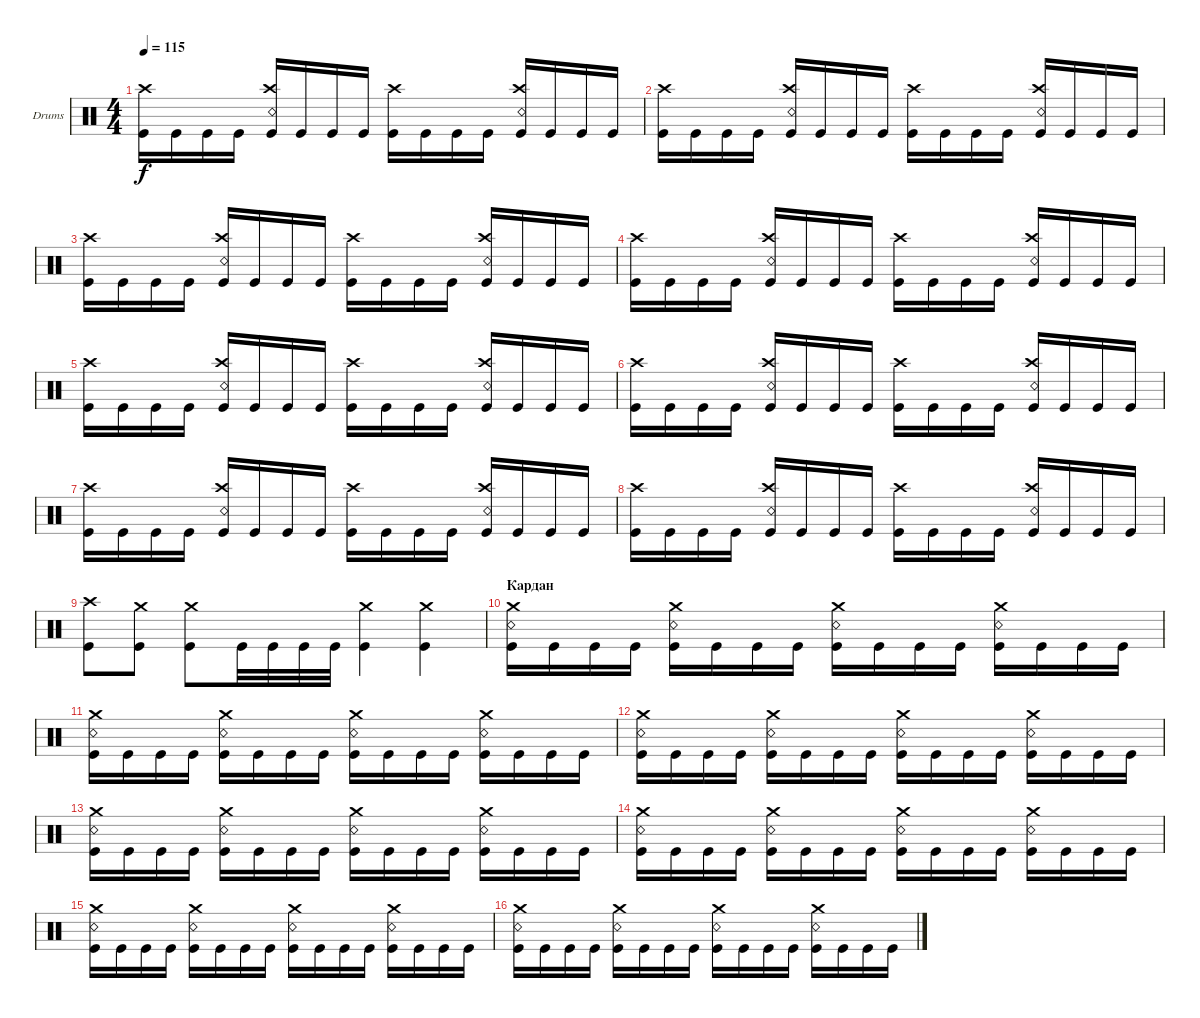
\bracketExtendMode groupsimilarinstruments
\firstSystemTrackNameOrientation horizontal
\otherSystemsTrackNameOrientation horizontal
\track ("Drumkit" "Drums") {instrument percussion}
\staff {score}
\articulation defaults
\ts (4 4)
\tempo 115
\clef neutral
\scale
0.333333
\ks c
("Kick (hit)" "Crash high (hit)").16{dy f} "Kick (hit)".16 "Kick (hit)".16 "Kick (hit)".16 ("Kick (hit)" "Snare (rim shot)" "Crash high (hit)").16 "Kick (hit)".16 "Kick (hit)".16 "Kick (hit)".16 ("Kick (hit)" "Crash high (hit)").16 "Kick (hit)".16 "Kick (hit)".16 "Kick (hit)".16 ("Kick (hit)" "Snare (rim shot)" "Crash high (hit)").16 "Kick (hit)".16 "Kick (hit)".16 "Kick (hit)".16 |
\scale
0.333333 ("Kick (hit)" "Crash high (hit)").16 "Kick (hit)".16 "Kick (hit)".16 "Kick (hit)".16 ("Kick (hit)" "Snare (rim shot)" "Crash high (hit)").16 "Kick (hit)".16 "Kick (hit)".16 "Kick (hit)".16 ("Kick (hit)" "Crash high (hit)").16 "Kick (hit)".16 "Kick (hit)".16 "Kick (hit)".16 ("Kick (hit)" "Snare (rim shot)" "Crash high (hit)").16 "Kick (hit)".16 "Kick (hit)".16 "Kick (hit)".16 |
\scale
0.333333 ("Kick (hit)" "Crash high (hit)").16 "Kick (hit)".16 "Kick (hit)".16 "Kick (hit)".16 ("Kick (hit)" "Snare (rim shot)" "Crash high (hit)").16 "Kick (hit)".16 "Kick (hit)".16 "Kick (hit)".16 ("Kick (hit)" "Crash high (hit)").16 "Kick (hit)".16 "Kick (hit)".16 "Kick (hit)".16 ("Kick (hit)" "Snare (rim shot)" "Crash high (hit)").16 "Kick (hit)".16 "Kick (hit)".16 "Kick (hit)".16 |
\scale
0.333333 ("Kick (hit)" "Crash high (hit)").16 "Kick (hit)".16 "Kick (hit)".16 "Kick (hit)".16 ("Kick (hit)" "Snare (rim shot)" "Crash high (hit)").16 "Kick (hit)".16 "Kick (hit)".16 "Kick (hit)".16 ("Kick (hit)" "Crash high (hit)").16 "Kick (hit)".16 "Kick (hit)".16 "Kick (hit)".16 ("Kick (hit)" "Snare (rim shot)" "Crash high (hit)").16 "Kick (hit)".16 "Kick (hit)".16 "Kick (hit)".16 |
\scale
0.333333 ("Kick (hit)" "Crash high (hit)").16 "Kick (hit)".16 "Kick (hit)".16 "Kick (hit)".16 ("Kick (hit)" "Snare (rim shot)" "Crash high (hit)").16 "Kick (hit)".16 "Kick (hit)".16 "Kick (hit)".16 ("Kick (hit)" "Crash high (hit)").16 "Kick (hit)".16 "Kick (hit)".16 "Kick (hit)".16 ("Kick (hit)" "Snare (rim shot)" "Crash high (hit)").16 "Kick (hit)".16 "Kick (hit)".16 "Kick (hit)".16 |
\scale
0.333333 ("Kick (hit)" "Crash high (hit)").16 "Kick (hit)".16 "Kick (hit)".16 "Kick (hit)".16 ("Kick (hit)" "Snare (rim shot)" "Crash high (hit)").16 "Kick (hit)".16 "Kick (hit)".16 "Kick (hit)".16 ("Kick (hit)" "Crash high (hit)").16 "Kick (hit)".16 "Kick (hit)".16 "Kick (hit)".16 ("Kick (hit)" "Snare (rim shot)" "Crash high (hit)").16 "Kick (hit)".16 "Kick (hit)".16 "Kick (hit)".16 |
\scale
0.333333 ("Kick (hit)" "Crash high (hit)").16 "Kick (hit)".16 "Kick (hit)".16 "Kick (hit)".16 ("Kick (hit)" "Snare (rim shot)" "Crash high (hit)").16 "Kick (hit)".16 "Kick (hit)".16 "Kick (hit)".16 ("Kick (hit)" "Crash high (hit)").16 "Kick (hit)".16 "Kick (hit)".16 "Kick (hit)".16 ("Kick (hit)" "Snare (rim shot)" "Crash high (hit)").16 "Kick (hit)".16 "Kick (hit)".16 "Kick (hit)".16 |
\scale
0.333333 ("Kick (hit)" "Crash high (hit)").16 "Kick (hit)".16 "Kick (hit)".16 "Kick (hit)".16 ("Kick (hit)" "Snare (rim shot)" "Crash high (hit)").16 "Kick (hit)".16 "Kick (hit)".16 "Kick (hit)".16 ("Kick (hit)" "Crash high (hit)").16 "Kick (hit)".16 "Kick (hit)".16 "Kick (hit)".16 ("Kick (hit)" "Snare (rim shot)" "Crash high (hit)").16 "Kick (hit)".16 "Kick (hit)".16 "Kick (hit)".16 |
\scale
0.333333 ("Kick (hit)" "Crash high (hit)").8 ("Kick (hit)" "Crash medium (hit)").8 ("Kick (hit)" "Crash medium (hit)").8 "Kick (hit)".32 "Kick (hit)".32 "Kick (hit)".32 "Kick (hit)".32 ("Kick (hit)" "Crash medium (hit)").4 ("Kick (hit)" "Crash medium (hit)").4 |
\section ("" "Кардан")
\scale
0.333333 ("Kick (hit)" "Snare (rim shot)" "Crash medium (hit)").16 "Kick (hit)".16 "Kick (hit)".16 "Kick (hit)".16 ("Kick (hit)" "Snare (rim shot)" "Crash medium (hit)").16 "Kick (hit)".16 "Kick (hit)".16 "Kick (hit)".16 ("Kick (hit)" "Snare (rim shot)" "Crash medium (hit)").16 "Kick (hit)".16 "Kick (hit)".16 "Kick (hit)".16 ("Kick (hit)" "Snare (rim shot)" "Crash medium (hit)").16 "Kick (hit)".16 "Kick (hit)".16 "Kick (hit)".16 |
\scale
0.333333 ("Kick (hit)" "Snare (rim shot)" "Crash medium (hit)").16 "Kick (hit)".16 "Kick (hit)".16 "Kick (hit)".16 ("Kick (hit)" "Snare (rim shot)" "Crash medium (hit)").16 "Kick (hit)".16 "Kick (hit)".16 "Kick (hit)".16 ("Kick (hit)" "Snare (rim shot)" "Crash medium (hit)").16 "Kick (hit)".16 "Kick (hit)".16 "Kick (hit)".16 ("Kick (hit)" "Snare (rim shot)" "Crash medium (hit)").16 "Kick (hit)".16 "Kick (hit)".16 "Kick (hit)".16 |
\scale
0.333333 ("Kick (hit)" "Snare (rim shot)" "Crash medium (hit)").16 "Kick (hit)".16 "Kick (hit)".16 "Kick (hit)".16 ("Kick (hit)" "Snare (rim shot)" "Crash medium (hit)").16 "Kick (hit)".16 "Kick (hit)".16 "Kick (hit)".16 ("Kick (hit)" "Snare (rim shot)" "Crash medium (hit)").16 "Kick (hit)".16 "Kick (hit)".16 "Kick (hit)".16 ("Kick (hit)" "Snare (rim shot)" "Crash medium (hit)").16 "Kick (hit)".16 "Kick (hit)".16 "Kick (hit)".16 |
\scale
0.333333 ("Kick (hit)" "Snare (rim shot)" "Crash medium (hit)").16 "Kick (hit)".16 "Kick (hit)".16 "Kick (hit)".16 ("Kick (hit)" "Snare (rim shot)" "Crash medium (hit)").16 "Kick (hit)".16 "Kick (hit)".16 "Kick (hit)".16 ("Kick (hit)" "Snare (rim shot)" "Crash medium (hit)").16 "Kick (hit)".16 "Kick (hit)".16 "Kick (hit)".16 ("Kick (hit)" "Snare (rim shot)" "Crash medium (hit)").16 "Kick (hit)".16 "Kick (hit)".16 "Kick (hit)".16 |
\scale
0.333333 ("Kick (hit)" "Snare (rim shot)" "Crash medium (hit)").16 "Kick (hit)".16 "Kick (hit)".16 "Kick (hit)".16 ("Kick (hit)" "Snare (rim shot)" "Crash medium (hit)").16 "Kick (hit)".16 "Kick (hit)".16 "Kick (hit)".16 ("Kick (hit)" "Snare (rim shot)" "Crash medium (hit)").16 "Kick (hit)".16 "Kick (hit)".16 "Kick (hit)".16 ("Kick (hit)" "Snare (rim shot)" "Crash medium (hit)").16 "Kick (hit)".16 "Kick (hit)".16 "Kick (hit)".16 |
\scale
0.333333 ("Kick (hit)" "Snare (rim shot)" "Crash medium (hit)").16 "Kick (hit)".16 "Kick (hit)".16 "Kick (hit)".16 ("Kick (hit)" "Snare (rim shot)" "Crash medium (hit)").16 "Kick (hit)".16 "Kick (hit)".16 "Kick (hit)".16 ("Kick (hit)" "Snare (rim shot)" "Crash medium (hit)").16 "Kick (hit)".16 "Kick (hit)".16 "Kick (hit)".16 ("Kick (hit)" "Snare (rim shot)" "Crash medium (hit)").16 "Kick (hit)".16 "Kick (hit)".16 "Kick (hit)".16 |
\scale
0.333333 ("Kick (hit)" "Snare (rim shot)" "Crash medium (hit)").16 "Kick (hit)".16 "Kick (hit)".16 "Kick (hit)".16 ("Kick (hit)" "Snare (rim shot)" "Crash medium (hit)").16 "Kick (hit)".16 "Kick (hit)".16 "Kick (hit)".16 ("Kick (hit)" "Snare (rim shot)" "Crash medium (hit)").16 "Kick (hit)".16 "Kick (hit)".16 "Kick (hit)".16 ("Kick (hit)" "Snare (rim shot)" "Crash medium (hit)").16 "Kick (hit)".16 "Kick (hit)".16 "Kick (hit)".16
